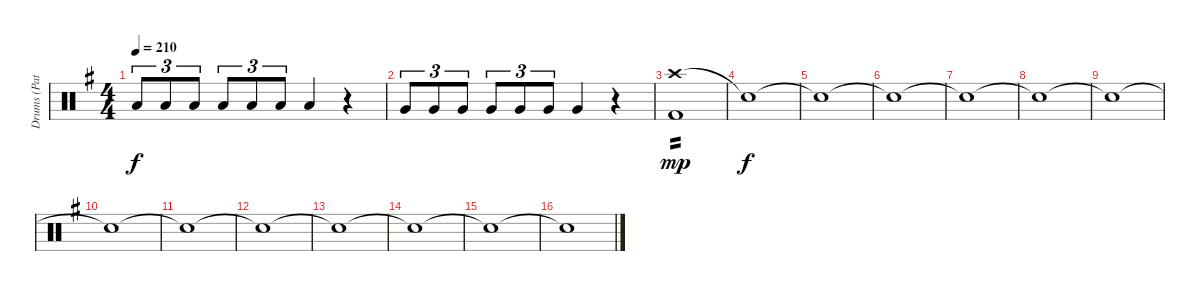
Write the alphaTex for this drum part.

\track ("Drums (Patrick Johansson)" "Drums (Pat") {instrument percussion}
\staff {score}
\articulation defaults
\ts (4 4)
\tempo 210
\clef neutral
\ks g "Low Tom (hit)".8{tu (3 2) dy f} "Low Tom (hit)".8{tu (3 2)} "Low Tom (hit)".8{tu (3 2)} "Low Tom (hit)".8{tu (3 2)} "Low Tom (hit)".8{tu (3 2)} "Low Tom (hit)".8{tu (3 2)} "Low Tom (hit)".4
r.4 |
"Very Low Tom (hit)".8{tu (3 2)} "Very Low Tom (hit)".8{tu (3 2)} "Very Low Tom (hit)".8{tu (3 2)} "Very Low Tom (hit)".8{tu (3 2)} "Very Low Tom (hit)".8{tu (3 2)} "Very Low Tom (hit)".8{tu (3 2)} "Very Low Tom (hit)".4 r.4 |
("Crash high (hit)" "Kick (hit) 2").1{tp 2 dy mp} |
"Snare (hit)"{t}.1{dy f} |
"Snare (hit)"{t}.1 |
"Snare (hit)"{t}.1 |
"Snare (hit)"{t}.1 |
"Snare (hit)"{t}.1 |
"Snare (hit)"{t}.1 |
"Snare (hit)"{t}.1 |
"Snare (hit)"{t}.1 |
"Snare (hit)"{t}.1 |
"Snare (hit)"{t}.1 |
"Snare (hit)"{t}.1 |
"Snare (hit)"{t}.1 |
"Snare (hit)"{t}.1
